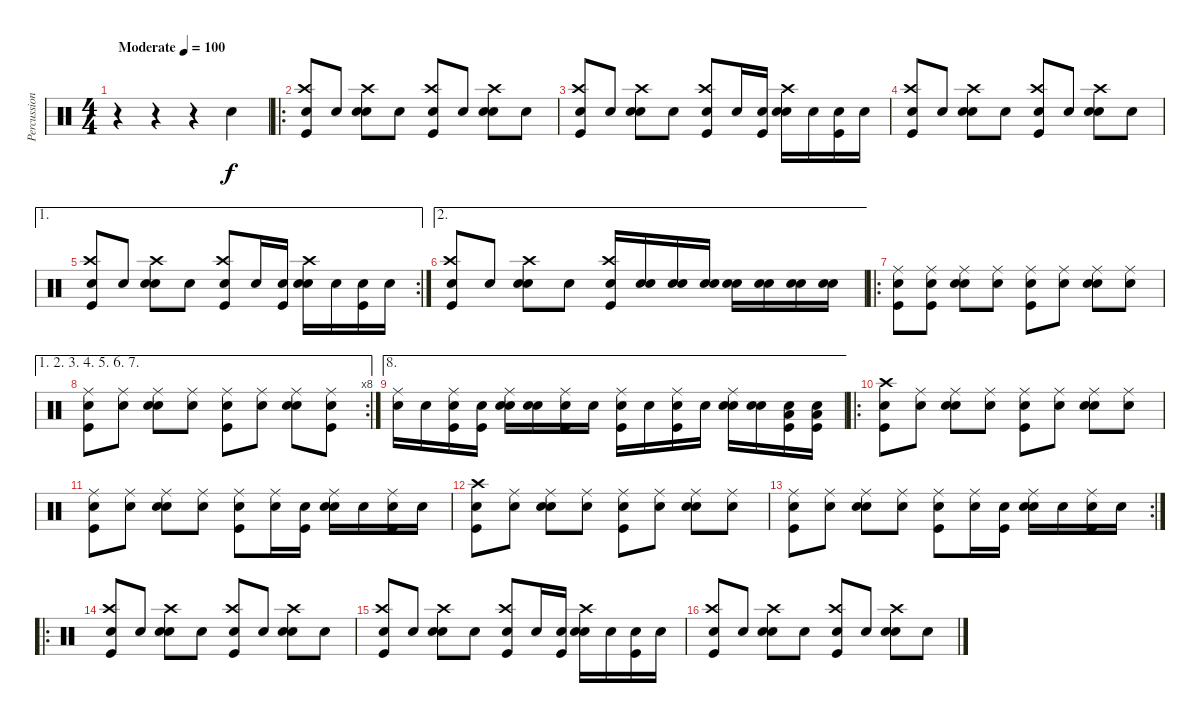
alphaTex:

\track ("Percussion" "Percussion") {instrument percussion}
\staff {score}
\articulation defaults
\ts (4 4)
\tempo (100 "Moderate")
\clef neutral
\ks c
r.4{dy f} r.4 r.4 "Snare (hit) 2".4 |
\ro
("Snare (hit)" "Crash high (hit)" "Kick (hit)").8 "Snare (hit)".8 ("Snare (hit)" "Crash high (hit)" "Snare (hit) 2").8 "Snare (hit)".8 ("Snare (hit)" "Crash high (hit)" "Kick (hit)").8 "Snare (hit)".8 ("Snare (hit)" "Crash high (hit)" "Snare (hit) 2").8 "Snare (hit)".8 |
("Snare (hit)" "Crash high (hit)" "Kick (hit)").8 "Snare (hit)".8 ("Snare (hit)" "Crash high (hit)" "Snare (hit) 2").8 "Snare (hit)".8 ("Snare (hit)" "Crash high (hit)" "Kick (hit)").8 "Snare (hit)".16 ("Snare (hit)" "Kick (hit)").16 ("Snare (hit)" "Crash high (hit)" "Snare (hit) 2").16 "Snare (hit)".16 ("Snare (hit)" "Kick (hit)").16 "Snare (hit)".16 |
("Snare (hit)" "Crash high (hit)" "Kick (hit)").8 "Snare (hit)".8 ("Snare (hit)" "Crash high (hit)" "Snare (hit) 2").8 "Snare (hit)".8 ("Snare (hit)" "Crash high (hit)" "Kick (hit)").8 "Snare (hit)".8 ("Snare (hit)" "Crash high (hit)" "Snare (hit) 2").8 "Snare (hit)".8 |
\ae 1
\rc 2
("Snare (hit)" "Crash high (hit)" "Kick (hit)").8 "Snare (hit)".8 ("Snare (hit)" "Crash high (hit)" "Snare (hit) 2").8 "Snare (hit)".8 ("Snare (hit)" "Crash high (hit)" "Kick (hit)").8 "Snare (hit)".16 ("Snare (hit)" "Kick (hit)").16 ("Snare (hit)" "Crash high (hit)" "Snare (hit) 2").16 "Snare (hit)".16 ("Snare (hit)" "Kick (hit)").16 "Snare (hit)".16 |
\ae 2
("Snare (hit)" "Crash high (hit)" "Kick (hit)").8 "Snare (hit)".8 ("Snare (hit)" "Crash high (hit)" "Snare (hit) 2").8 "Snare (hit)".8 ("Snare (hit)" "Crash high (hit)" "Kick (hit)").16 ("Snare (hit)" "Snare (hit) 2").16 ("Snare (hit)" "Snare (hit) 2").16 ("Snare (hit)" "Snare (hit) 2").16 ("Snare (hit)" "Snare (hit) 2").16 ("Snare (hit)" "Snare (hit) 2").16 ("Snare (hit)" "Snare (hit) 2").16 ("Snare (hit)" "Snare (hit) 2").16 |
\ro
("Snare (hit)" "Ride (middle)" "Kick (hit)").8 ("Snare (hit)" "Ride (middle)" "Kick (hit)").8 ("Snare (hit)" "Ride (middle)" "Snare (hit) 2").8 ("Snare (hit)" "Ride (middle)").8 ("Snare (hit)" "Ride (middle)" "Kick (hit)").8 ("Snare (hit)" "Ride (middle)").8 ("Snare (hit)" "Ride (middle)" "Snare (hit) 2").8 ("Snare (hit)" "Ride (middle)").8 |
\ae (1 2 3 4 5 6 7)
\rc 8
("Snare (hit)" "Ride (middle)" "Kick (hit)").8 ("Snare (hit)" "Ride (middle)").8 ("Snare (hit)" "Ride (middle)" "Snare (hit) 2").8 ("Snare (hit)" "Ride (middle)").8 ("Snare (hit)" "Ride (middle)" "Kick (hit)").8 ("Snare (hit)" "Ride (middle)").8 ("Snare (hit)" "Ride (middle)" "Snare (hit) 2").8 ("Snare (hit)" "Ride (middle)" "Kick (hit)").8 |
\ae 8
("Snare (hit)" "Ride (middle)").16 "Snare (hit)".16 ("Snare (hit)" "Ride (middle)" "Kick (hit)").16 ("Snare (hit)" "Kick (hit)").16 ("Snare (hit)" "Ride (middle)" "Snare (hit) 2").16 ("Snare (hit)" "Snare (hit) 2").16 ("Snare (hit)" "Ride (middle)" "Kick (hit)").16 "Snare (hit)".16 ("Snare (hit)" "Ride (middle)" "Kick (hit)").16 "Snare (hit)".16 ("Snare (hit)" "Ride (middle)" "Kick (hit)").16 "Snare (hit)".16 ("Snare (hit)" "Ride (middle)" "Snare (hit) 2").16 ("Snare (hit)" "Snare (hit) 2").16 ("Snare (hit)" "Low Floor Tom (hit)" "Kick (hit)").16 ("Snare (hit)" "Low Floor Tom (hit)" "Kick (hit)").16 |
\ro
("Snare (hit)" "Crash high (hit)" "Kick (hit)").8 ("Snare (hit)" "Ride (middle)").8 ("Snare (hit)" "Ride (middle)" "Snare (hit) 2").8 ("Snare (hit)" "Ride (middle)").8 ("Snare (hit)" "Ride (middle)" "Kick (hit)").8 ("Snare (hit)" "Ride (middle)").8 ("Snare (hit)" "Ride (middle)" "Snare (hit) 2").8 ("Snare (hit)" "Ride (middle)").8 |
("Snare (hit)" "Ride (middle)" "Kick (hit)").8 ("Snare (hit)" "Ride (middle)").8 ("Snare (hit)" "Ride (middle)" "Snare (hit) 2").8 ("Snare (hit)" "Ride (middle)").8 ("Snare (hit)" "Ride (middle)" "Kick (hit)").8 ("Snare (hit)" "Ride (middle)").16 ("Snare (hit)" "Kick (hit)").16 ("Snare (hit)" "Ride (middle)" "Snare (hit) 2").16 "Snare (hit)".16 ("Snare (hit)" "Ride (middle)" "Kick (hit)").16 "Snare (hit)".16 |
("Snare (hit)" "Crash high (hit)" "Kick (hit)").8 ("Snare (hit)" "Ride (middle)").8 ("Snare (hit)" "Ride (middle)" "Snare (hit) 2").8 ("Snare (hit)" "Ride (middle)").8 ("Snare (hit)" "Ride (middle)" "Kick (hit)").8 ("Snare (hit)" "Ride (middle)").8 ("Snare (hit)" "Ride (middle)" "Snare (hit) 2").8 ("Snare (hit)" "Ride (middle)").8 |
\rc 2
("Snare (hit)" "Ride (middle)" "Kick (hit)").8 ("Snare (hit)" "Ride (middle)").8 ("Snare (hit)" "Ride (middle)" "Snare (hit) 2").8 ("Snare (hit)" "Ride (middle)").8 ("Snare (hit)" "Ride (middle)" "Kick (hit)").8 ("Snare (hit)" "Ride (middle)").16 ("Snare (hit)" "Kick (hit)").16 ("Snare (hit)" "Ride (middle)" "Snare (hit) 2").16 "Snare (hit)".16 ("Snare (hit)" "Ride (middle)" "Kick (hit)").16 "Snare (hit)".16 |
\ro
("Snare (hit)" "Crash high (hit)" "Kick (hit)").8 "Snare (hit)".8 ("Snare (hit)" "Crash high (hit)" "Snare (hit) 2").8 "Snare (hit)".8 ("Snare (hit)" "Crash high (hit)" "Kick (hit)").8 "Snare (hit)".8 ("Snare (hit)" "Crash high (hit)" "Snare (hit) 2").8 "Snare (hit)".8 |
("Snare (hit)" "Crash high (hit)" "Kick (hit)").8 "Snare (hit)".8 ("Snare (hit)" "Crash high (hit)" "Snare (hit) 2").8 "Snare (hit)".8 ("Snare (hit)" "Crash high (hit)" "Kick (hit)").8 "Snare (hit)".16 ("Snare (hit)" "Kick (hit)").16 ("Snare (hit)" "Crash high (hit)" "Snare (hit) 2").16 "Snare (hit)".16 ("Snare (hit)" "Kick (hit)").16 "Snare (hit)".16 |
("Snare (hit)" "Crash high (hit)" "Kick (hit)").8 "Snare (hit)".8 ("Snare (hit)" "Crash high (hit)" "Snare (hit) 2").8 "Snare (hit)".8 ("Snare (hit)" "Crash high (hit)" "Kick (hit)").8 "Snare (hit)".8 ("Snare (hit)" "Crash high (hit)" "Snare (hit) 2").8 "Snare (hit)".8
